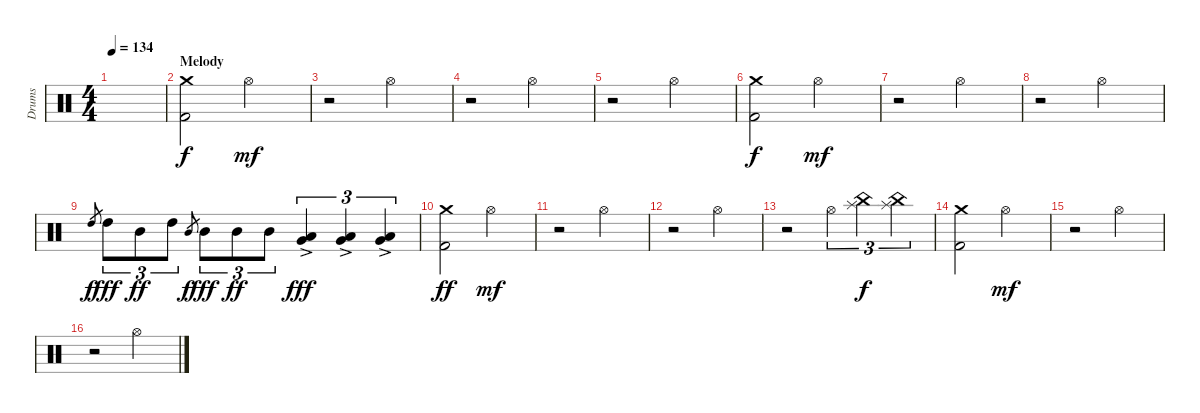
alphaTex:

\track ("Drums" "Drums") {instrument percussion}
\staff {score}
\articulation defaults
\ts (4 4)
\tempo 134
\clef neutral
\ks c
|
\section ("" "Melody")
("Kick (hit) 2" "Crash medium (hit)").2 "Hi-Hat (open)".2{dy mf} |
r.2 "Hi-Hat (open)".2 |
r.2 "Hi-Hat (open)".2 |
r.2 "Hi-Hat (open)".2 |
("Kick (hit) 2" "Crash medium (hit)").2{dy f} "Hi-Hat (open)".2{dy mf} |
r.2 "Hi-Hat (open)".2 |
r.2 "Hi-Hat (open)".2 |
"High Tom (hit)".8{gr dy f} "High Tom (hit)".8{tu (3 2) dy fff} "Mid Tom (hit)".8{tu (3 2) dy ff} "High Tom (hit)".8{tu (3 2)} "Mid Tom (hit)".8{gr dy f} "Mid Tom (hit)".8{tu (3 2) dy fff} "Mid Tom (hit)".8{tu (3 2) dy ff} "Mid Tom (hit)".8{tu (3 2)} ("Low Tom (hit)"{ac} "Very Low Tom (hit)"{ac}).4{tu (3 2) dy fff} ("Low Tom (hit)"{ac} "Very Low Tom (hit)"{ac}).4{tu (3 2)} ("Low Tom (hit)"{ac} "Very Low Tom (hit)"{ac}).4{tu (3 2)} |
("Kick (hit) 2" "Crash medium (hit)").2{dy ff} "Hi-Hat (open)".2{dy mf} |
r.2 "Hi-Hat (open)".2 |
r.2 "Hi-Hat (open)".2 |
r.2 "Hi-Hat (open)".4{tu (3 2)} ("Splash (hit)" "China (hit)").4{tu (3 2) dy f} ("Splash (hit)" "China (hit)").4{tu (3 2)} |
("Kick (hit) 2" "Crash medium (hit)").2 "Hi-Hat (open)".2{dy mf} |
r.2 "Hi-Hat (open)".2 |
r.2 "Hi-Hat (open)".2
